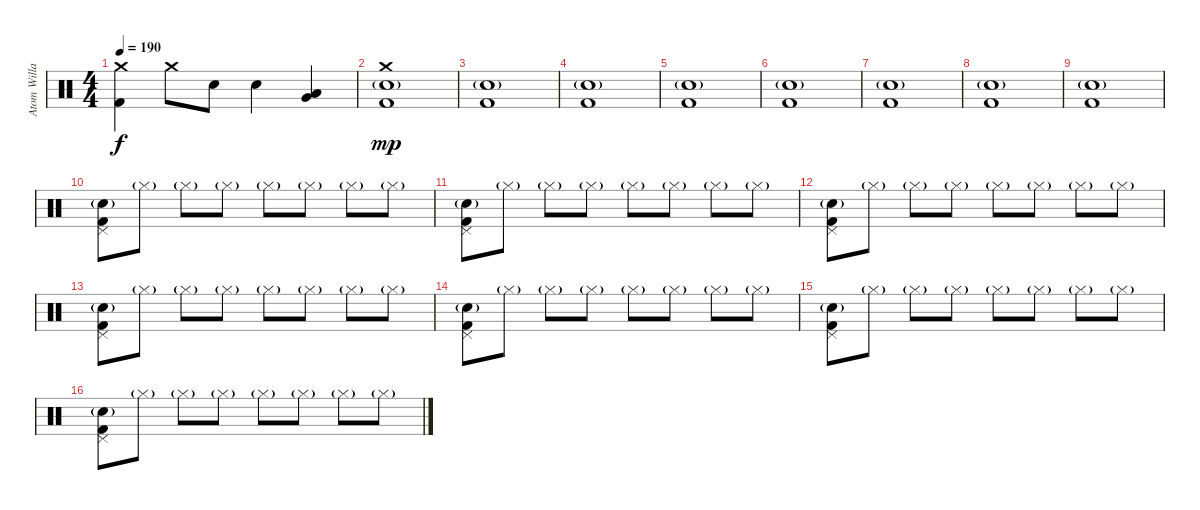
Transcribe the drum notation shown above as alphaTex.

\track ("Atom Willard" "Atom Willa") {instrument percussion}
\staff {score}
\articulation defaults
\ts (4 4)
\tempo 190
\clef neutral
\ks c
("Crash medium (hit)" "Kick (hit) 2").4{dy f} "Crash medium (hit)".8 "Electric Snare (hit)".8 "Electric Snare (hit)".4 ("Very Low Tom (hit)" "Low Floor Tom (hit)").4 |
("Crash medium (hit)" "Hand Clap (hit)"{g} "Kick (hit) 2").1{dy mp} |
("Hand Clap (hit)"{g} "Kick (hit) 2").1 |
("Hand Clap (hit)"{g} "Kick (hit) 2").1 |
("Hand Clap (hit)"{g} "Kick (hit) 2").1 |
("Hand Clap (hit)"{g} "Kick (hit) 2").1 |
("Hand Clap (hit)"{g} "Kick (hit) 2").1 |
("Hand Clap (hit)"{g} "Kick (hit) 2").1 |
("Hand Clap (hit)"{g} "Kick (hit) 2").1 |
("Hand Clap (hit)"{g} "Pedal Hi-Hat (hit)" "Kick (hit) 2").8 "Hi-Hat (closed)"{g}.8 "Hi-Hat (closed)"{g}.8 "Hi-Hat (closed)"{g}.8 "Hi-Hat (closed)"{g}.8 "Hi-Hat (closed)"{g}.8 "Hi-Hat (closed)"{g}.8 "Hi-Hat (closed)"{g}.8 |
("Hand Clap (hit)"{g} "Pedal Hi-Hat (hit)" "Kick (hit) 2").8 "Hi-Hat (closed)"{g}.8 "Hi-Hat (closed)"{g}.8 "Hi-Hat (closed)"{g}.8 "Hi-Hat (closed)"{g}.8 "Hi-Hat (closed)"{g}.8 "Hi-Hat (closed)"{g}.8 "Hi-Hat (closed)"{g}.8 |
("Hand Clap (hit)"{g} "Pedal Hi-Hat (hit)" "Kick (hit) 2").8 "Hi-Hat (closed)"{g}.8 "Hi-Hat (closed)"{g}.8 "Hi-Hat (closed)"{g}.8 "Hi-Hat (closed)"{g}.8 "Hi-Hat (closed)"{g}.8 "Hi-Hat (closed)"{g}.8 "Hi-Hat (closed)"{g}.8 |
("Hand Clap (hit)"{g} "Pedal Hi-Hat (hit)" "Kick (hit) 2").8 "Hi-Hat (closed)"{g}.8 "Hi-Hat (closed)"{g}.8 "Hi-Hat (closed)"{g}.8 "Hi-Hat (closed)"{g}.8 "Hi-Hat (closed)"{g}.8 "Hi-Hat (closed)"{g}.8 "Hi-Hat (closed)"{g}.8 |
("Hand Clap (hit)"{g} "Pedal Hi-Hat (hit)" "Kick (hit) 2").8 "Hi-Hat (closed)"{g}.8 "Hi-Hat (closed)"{g}.8 "Hi-Hat (closed)"{g}.8 "Hi-Hat (closed)"{g}.8 "Hi-Hat (closed)"{g}.8 "Hi-Hat (closed)"{g}.8 "Hi-Hat (closed)"{g}.8 |
("Hand Clap (hit)"{g} "Pedal Hi-Hat (hit)" "Kick (hit) 2").8 "Hi-Hat (closed)"{g}.8 "Hi-Hat (closed)"{g}.8 "Hi-Hat (closed)"{g}.8 "Hi-Hat (closed)"{g}.8 "Hi-Hat (closed)"{g}.8 "Hi-Hat (closed)"{g}.8 "Hi-Hat (closed)"{g}.8 |
("Hand Clap (hit)"{g} "Pedal Hi-Hat (hit)" "Kick (hit) 2").8 "Hi-Hat (closed)"{g}.8 "Hi-Hat (closed)"{g}.8 "Hi-Hat (closed)"{g}.8 "Hi-Hat (closed)"{g}.8 "Hi-Hat (closed)"{g}.8 "Hi-Hat (closed)"{g}.8 "Hi-Hat (closed)"{g}.8
